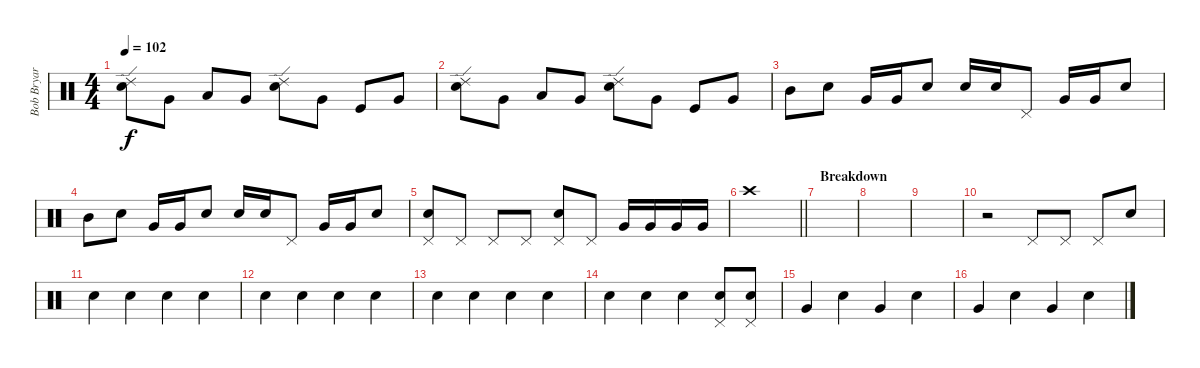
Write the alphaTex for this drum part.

\track ("Bob Bryar" "Bob Bryar") {instrument percussion}
\staff {score}
\articulation defaults
\ts (4 4)
\tempo 102
\clef neutral
\ks c
("Ride (edge) 2" "Electric Snare (hit)").8{dy f} "Very Low Tom (hit)".8 "Low Tom (hit)".8 "Very Low Tom (hit)".8 ("Ride (edge) 2" "Electric Snare (hit)").8 "Very Low Tom (hit)".8 "Kick (hit)".8 "Very Low Tom (hit)".8 |
("Ride (edge) 2" "Electric Snare (hit)").8 "Very Low Tom (hit)".8 "Low Tom (hit)".8 "Very Low Tom (hit)".8 ("Ride (edge) 2" "Electric Snare (hit)").8 "Very Low Tom (hit)".8 "Kick (hit)".8 "Very Low Tom (hit)".8 |
"Mid Tom (hit)".8 "Electric Snare (hit)".8 "Very Low Tom (hit)".16 "Very Low Tom (hit)".16 "Electric Snare (hit)".8 "Electric Snare (hit)".16 "Electric Snare (hit)".16 "Pedal Hi-Hat (hit)".8 "Very Low Tom (hit)".16 "Very Low Tom (hit)".16 "Electric Snare (hit)".8 |
"Mid Tom (hit)".8 "Electric Snare (hit)".8 "Very Low Tom (hit)".16 "Very Low Tom (hit)".16 "Electric Snare (hit)".8 "Electric Snare (hit)".16 "Electric Snare (hit)".16 "Pedal Hi-Hat (hit)".8 "Very Low Tom (hit)".16 "Very Low Tom (hit)".16 "Electric Snare (hit)".8 |
("Pedal Hi-Hat (hit)" "Electric Snare (hit)").8 "Pedal Hi-Hat (hit)".8 "Pedal Hi-Hat (hit)".8 "Pedal Hi-Hat (hit)".8 ("Pedal Hi-Hat (hit)" "Electric Snare (hit)").8 "Pedal Hi-Hat (hit)".8 "Very Low Tom (hit)".16 "Very Low Tom (hit)".16 "Very Low Tom (hit)".16 "Very Low Tom (hit)".16 |
\barLineRight lightlight "Crash high (hit)".1
|
\section ("" "Breakdown")
|
|
|
r.2 "Pedal Hi-Hat (hit)".8 "Pedal Hi-Hat (hit)".8 "Pedal Hi-Hat (hit)".8 "Electric Snare (hit)".8 |
"Electric Snare (hit)".4 "Electric Snare (hit)".4 "Electric Snare (hit)".4 "Electric Snare (hit)".4 |
"Electric Snare (hit)".4 "Electric Snare (hit)".4 "Electric Snare (hit)".4 "Electric Snare (hit)".4 |
"Electric Snare (hit)".4 "Electric Snare (hit)".4 "Electric Snare (hit)".4 "Electric Snare (hit)".4 |
"Electric Snare (hit)".4 "Electric Snare (hit)".4 "Electric Snare (hit)".4 ("Electric Snare (hit)" "Pedal Hi-Hat (hit)").8 ("Electric Snare (hit)" "Pedal Hi-Hat (hit)").8 |
"Very Low Tom (hit)".4 "Electric Snare (hit)".4 "Very Low Tom (hit)".4 "Electric Snare (hit)".4 |
"Very Low Tom (hit)".4 "Electric Snare (hit)".4 "Very Low Tom (hit)".4 "Electric Snare (hit)".4
